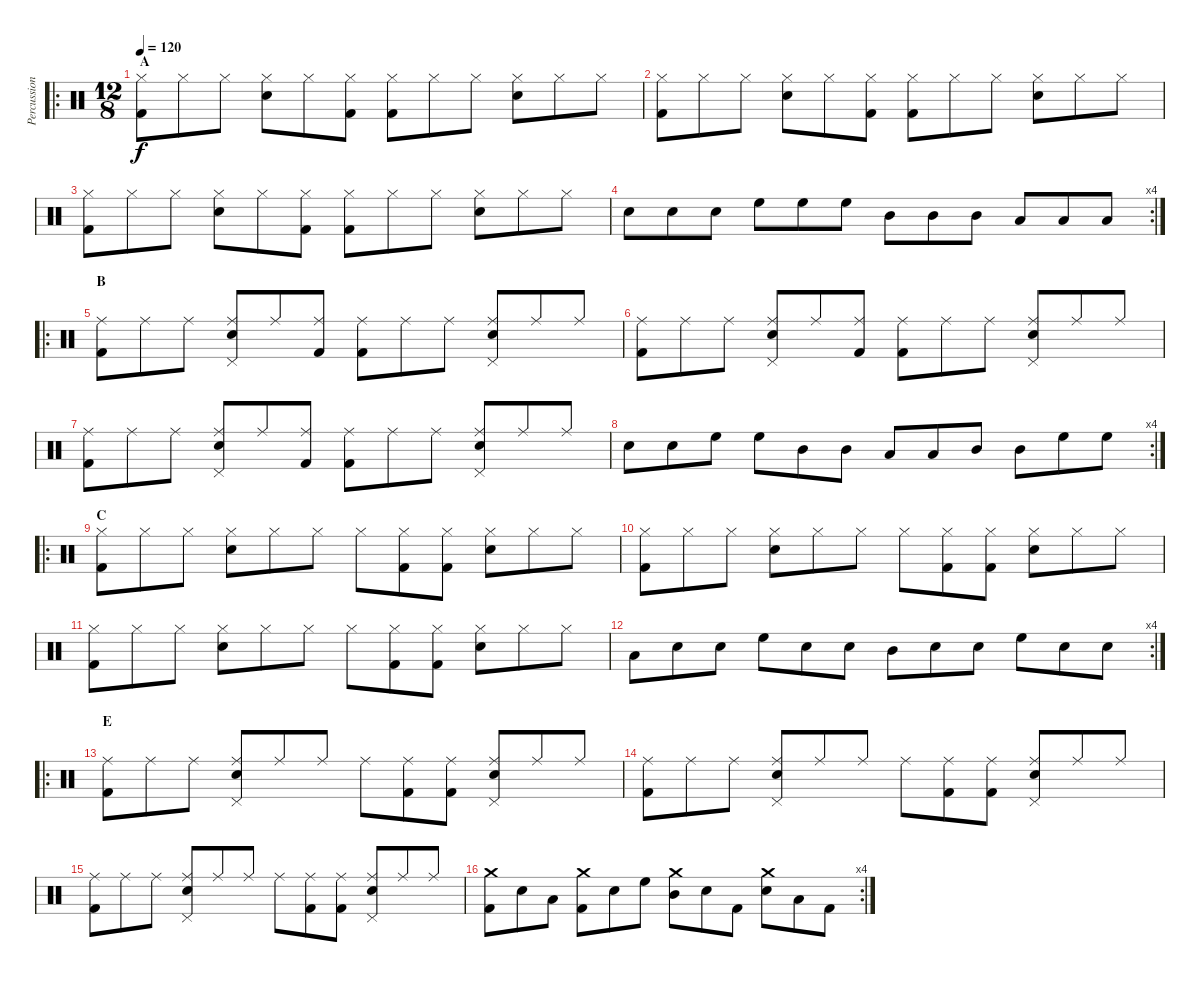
\track ("Percussioni" "Percussion") {instrument percussion}
\staff {score}
\articulation defaults
\ro
\ts (12 8)
\section ("" " A")
\tempo 120
\clef neutral
\ks c
("Hi-Hat (closed)" "Kick (hit) 2").8{dy f} "Hi-Hat (closed)".8 "Hi-Hat (closed)".8 ("Hi-Hat (closed)" "Snare (hit) 2").8 "Hi-Hat (closed)".8 ("Hi-Hat (closed)" "Kick (hit) 2").8 ("Hi-Hat (closed)" "Kick (hit) 2").8 "Hi-Hat (closed)".8 "Hi-Hat (closed)".8 ("Hi-Hat (closed)" "Snare (hit) 2").8 "Hi-Hat (closed)".8 "Hi-Hat (closed)".8 |
("Hi-Hat (closed)" "Kick (hit) 2").8 "Hi-Hat (closed)".8 "Hi-Hat (closed)".8 ("Hi-Hat (closed)" "Snare (hit) 2").8 "Hi-Hat (closed)".8 ("Hi-Hat (closed)" "Kick (hit) 2").8 ("Hi-Hat (closed)" "Kick (hit) 2").8 "Hi-Hat (closed)".8 "Hi-Hat (closed)".8 ("Hi-Hat (closed)" "Snare (hit) 2").8 "Hi-Hat (closed)".8 "Hi-Hat (closed)".8 |
("Hi-Hat (closed)" "Kick (hit) 2").8 "Hi-Hat (closed)".8 "Hi-Hat (closed)".8 ("Hi-Hat (closed)" "Snare (hit) 2").8 "Hi-Hat (closed)".8 ("Hi-Hat (closed)" "Kick (hit) 2").8 ("Hi-Hat (closed)" "Kick (hit) 2").8 "Hi-Hat (closed)".8 "Hi-Hat (closed)".8 ("Hi-Hat (closed)" "Snare (hit) 2").8 "Hi-Hat (closed)".8 "Hi-Hat (closed)".8 |
\rc 4 "Snare (hit) 2".8 "Snare (hit) 2".8 "Snare (hit) 2".8 "High Floor Tom (hit)".8 "High Floor Tom (hit)".8 "High Floor Tom (hit)".8 "Mid Tom (hit)".8 "Mid Tom (hit)".8 "Mid Tom (hit)".8 "Low Floor Tom (hit)".8 "Low Floor Tom (hit)".8 "Low Floor Tom (hit)".8
|
\ro
\section ("" "B")
("Ride (middle)" "Kick (hit) 2").8 "Ride (middle)".8 "Ride (middle)".8 ("Ride (middle)" "Pedal Hi-Hat (hit)" "Snare (hit) 2").8 "Ride (middle)".8 ("Ride (middle)" "Kick (hit) 2").8 ("Ride (middle)" "Kick (hit) 2").8 "Ride (middle)".8 "Ride (middle)".8 ("Ride (middle)" "Pedal Hi-Hat (hit)" "Snare (hit) 2").8 "Ride (middle)".8 "Ride (middle)".8 |
("Ride (middle)" "Kick (hit) 2").8 "Ride (middle)".8 "Ride (middle)".8 ("Ride (middle)" "Pedal Hi-Hat (hit)" "Snare (hit) 2").8 "Ride (middle)".8 ("Ride (middle)" "Kick (hit) 2").8 ("Ride (middle)" "Kick (hit) 2").8 "Ride (middle)".8 "Ride (middle)".8 ("Ride (middle)" "Pedal Hi-Hat (hit)" "Snare (hit) 2").8 "Ride (middle)".8 "Ride (middle)".8 |
("Ride (middle)" "Kick (hit) 2").8 "Ride (middle)".8 "Ride (middle)".8 ("Ride (middle)" "Pedal Hi-Hat (hit)" "Snare (hit) 2").8 "Ride (middle)".8 ("Ride (middle)" "Kick (hit) 2").8 ("Ride (middle)" "Kick (hit) 2").8 "Ride (middle)".8 "Ride (middle)".8 ("Ride (middle)" "Pedal Hi-Hat (hit)" "Snare (hit) 2").8 "Ride (middle)".8 "Ride (middle)".8 |
\rc 4 "Snare (hit) 2".8 "Snare (hit) 2".8 "High Floor Tom (hit)".8 "High Floor Tom (hit)".8 "Mid Tom (hit)".8 "Mid Tom (hit)".8 "Low Floor Tom (hit)".8 "Low Floor Tom (hit)".8 "Mid Tom (hit)".8 "Mid Tom (hit)".8 "High Floor Tom (hit)".8 "High Floor Tom (hit)".8
|
\ro
\section ("" "C")
("Hi-Hat (closed)" "Kick (hit) 2").8 "Hi-Hat (closed)".8 "Hi-Hat (closed)".8 ("Hi-Hat (closed)" "Snare (hit) 2").8 "Hi-Hat (closed)".8 "Hi-Hat (closed)".8 "Hi-Hat (closed)".8 ("Hi-Hat (closed)" "Kick (hit) 2").8 ("Hi-Hat (closed)" "Kick (hit) 2").8 ("Hi-Hat (closed)" "Snare (hit) 2").8 "Hi-Hat (closed)".8 "Hi-Hat (closed)".8 |
("Hi-Hat (closed)" "Kick (hit) 2").8 "Hi-Hat (closed)".8 "Hi-Hat (closed)".8 ("Hi-Hat (closed)" "Snare (hit) 2").8 "Hi-Hat (closed)".8 "Hi-Hat (closed)".8 "Hi-Hat (closed)".8 ("Hi-Hat (closed)" "Kick (hit) 2").8 ("Hi-Hat (closed)" "Kick (hit) 2").8 ("Hi-Hat (closed)" "Snare (hit) 2").8 "Hi-Hat (closed)".8 "Hi-Hat (closed)".8 |
("Hi-Hat (closed)" "Kick (hit) 2").8 "Hi-Hat (closed)".8 "Hi-Hat (closed)".8 ("Hi-Hat (closed)" "Snare (hit) 2").8 "Hi-Hat (closed)".8 "Hi-Hat (closed)".8 "Hi-Hat (closed)".8 ("Hi-Hat (closed)" "Kick (hit) 2").8 ("Hi-Hat (closed)" "Kick (hit) 2").8 ("Hi-Hat (closed)" "Snare (hit) 2").8 "Hi-Hat (closed)".8 "Hi-Hat (closed)".8 |
\rc 4 "Low Floor Tom (hit)".8 "Snare (hit) 2".8 "Snare (hit) 2".8 "High Floor Tom (hit)".8 "Snare (hit) 2".8 "Snare (hit) 2".8 "Mid Tom (hit)".8 "Snare (hit) 2".8 "Snare (hit) 2".8 "High Floor Tom (hit)".8 "Snare (hit) 2".8 "Snare (hit) 2".8
|
\ro
\section ("" "E")
("Ride (middle)" "Kick (hit) 2").8 "Ride (middle)".8 "Ride (middle)".8 ("Ride (middle)" "Pedal Hi-Hat (hit)" "Snare (hit) 2").8 "Ride (middle)".8 "Ride (middle)".8 "Ride (middle)".8 ("Ride (middle)" "Kick (hit) 2").8 ("Ride (middle)" "Kick (hit) 2").8 ("Ride (middle)" "Pedal Hi-Hat (hit)" "Snare (hit) 2").8 "Ride (middle)".8 "Ride (middle)".8 |
("Ride (middle)" "Kick (hit) 2").8 "Ride (middle)".8 "Ride (middle)".8 ("Ride (middle)" "Pedal Hi-Hat (hit)" "Snare (hit) 2").8 "Ride (middle)".8 "Ride (middle)".8 "Ride (middle)".8 ("Ride (middle)" "Kick (hit) 2").8 ("Ride (middle)" "Kick (hit) 2").8 ("Ride (middle)" "Pedal Hi-Hat (hit)" "Snare (hit) 2").8 "Ride (middle)".8 "Ride (middle)".8 |
("Ride (middle)" "Kick (hit) 2").8 "Ride (middle)".8 "Ride (middle)".8 ("Ride (middle)" "Pedal Hi-Hat (hit)" "Snare (hit) 2").8 "Ride (middle)".8 "Ride (middle)".8 "Ride (middle)".8 ("Ride (middle)" "Kick (hit) 2").8 ("Ride (middle)" "Kick (hit) 2").8 ("Ride (middle)" "Pedal Hi-Hat (hit)" "Snare (hit) 2").8 "Ride (middle)".8 "Ride (middle)".8 |
\rc 4
("Kick (hit) 2" "Crash medium (hit)").8 "Snare (hit) 2".8 "Low Floor Tom (hit)".8 ("Kick (hit) 2" "Crash medium (hit)").8 "Snare (hit) 2".8 "High Floor Tom (hit)".8 ("Mid Tom (hit)" "Crash medium (hit)").8 "Snare (hit) 2".8 "Kick (hit) 2".8 ("Snare (hit) 2" "Crash medium (hit)").8 "Low Floor Tom (hit)".8 "Kick (hit) 2".8
